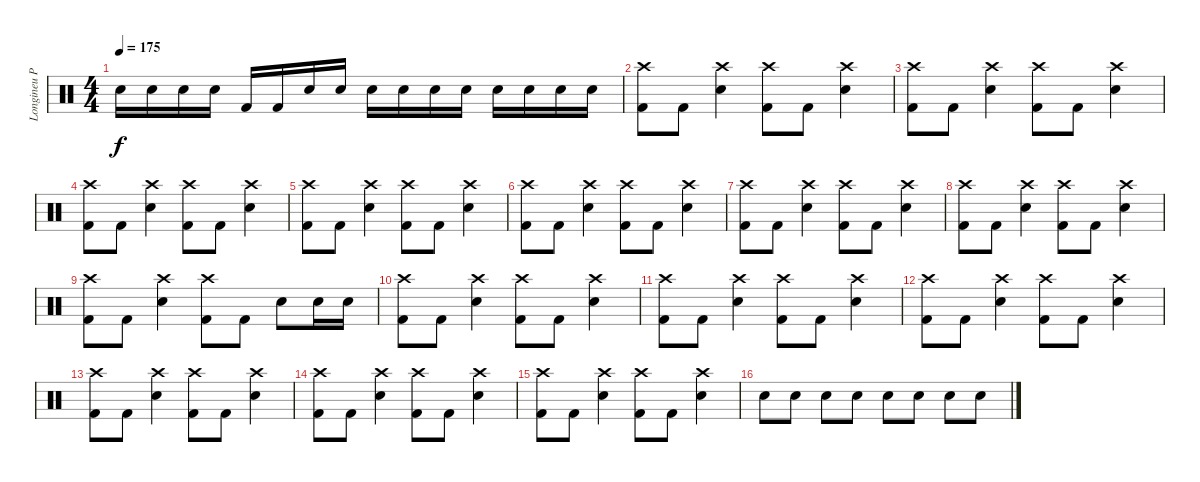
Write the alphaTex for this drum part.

\track ("Longineu Parsons III Drums" "Longineu P") {instrument percussion}
\staff {score}
\articulation defaults
\ts (4 4)
\tempo 175
\clef neutral
\ks c "Snare (hit) 2".16{dy f} "Snare (hit) 2".16 "Snare (hit) 2".16 "Snare (hit) 2".16 "Kick (hit) 2".16 "Kick (hit) 2".16 "Snare (hit) 2".16 "Snare (hit) 2".16 "Snare (hit) 2".16 "Snare (hit) 2".16 "Snare (hit) 2".16 "Snare (hit) 2".16 "Snare (hit) 2".16 "Snare (hit) 2".16 "Snare (hit) 2".16 "Snare (hit) 2".16
|
("Crash high (hit)" "Kick (hit) 2").8 "Kick (hit) 2".8 ("Crash high (hit)" "Snare (hit) 2").4 ("Crash high (hit)" "Kick (hit) 2").8 "Kick (hit) 2".8 ("Crash high (hit)" "Snare (hit) 2").4 |
("Crash high (hit)" "Kick (hit) 2").8 "Kick (hit) 2".8 ("Crash high (hit)" "Snare (hit) 2").4 ("Crash high (hit)" "Kick (hit) 2").8 "Kick (hit) 2".8 ("Crash high (hit)" "Snare (hit) 2").4 |
("Crash high (hit)" "Kick (hit) 2").8 "Kick (hit) 2".8 ("Crash high (hit)" "Snare (hit) 2").4 ("Crash high (hit)" "Kick (hit) 2").8 "Kick (hit) 2".8 ("Crash high (hit)" "Snare (hit) 2").4 |
("Crash high (hit)" "Kick (hit) 2").8 "Kick (hit) 2".8 ("Crash high (hit)" "Snare (hit) 2").4 ("Crash high (hit)" "Kick (hit) 2").8 "Kick (hit) 2".8 ("Crash high (hit)" "Snare (hit) 2").4 |
("Crash high (hit)" "Kick (hit) 2").8 "Kick (hit) 2".8 ("Crash high (hit)" "Snare (hit) 2").4 ("Crash high (hit)" "Kick (hit) 2").8 "Kick (hit) 2".8 ("Crash high (hit)" "Snare (hit) 2").4 |
("Crash high (hit)" "Kick (hit) 2").8 "Kick (hit) 2".8 ("Crash high (hit)" "Snare (hit) 2").4 ("Crash high (hit)" "Kick (hit) 2").8 "Kick (hit) 2".8 ("Crash high (hit)" "Snare (hit) 2").4 |
("Crash high (hit)" "Kick (hit) 2").8 "Kick (hit) 2".8 ("Crash high (hit)" "Snare (hit) 2").4 ("Crash high (hit)" "Kick (hit) 2").8 "Kick (hit) 2".8 ("Crash high (hit)" "Snare (hit) 2").4 |
("Crash high (hit)" "Kick (hit) 2").8 "Kick (hit) 2".8 ("Crash high (hit)" "Snare (hit) 2").4 ("Crash high (hit)" "Kick (hit) 2").8 "Kick (hit) 2".8 "Snare (hit) 2".8 "Snare (hit) 2".16 "Snare (hit) 2".16 |
("Crash high (hit)" "Kick (hit) 2").8 "Kick (hit) 2".8 ("Crash high (hit)" "Snare (hit) 2").4 ("Crash high (hit)" "Kick (hit) 2").8 "Kick (hit) 2".8 ("Crash high (hit)" "Snare (hit) 2").4 |
("Crash high (hit)" "Kick (hit) 2").8 "Kick (hit) 2".8 ("Crash high (hit)" "Snare (hit) 2").4 ("Crash high (hit)" "Kick (hit) 2").8 "Kick (hit) 2".8 ("Crash high (hit)" "Snare (hit) 2").4 |
("Crash high (hit)" "Kick (hit) 2").8 "Kick (hit) 2".8 ("Crash high (hit)" "Snare (hit) 2").4 ("Crash high (hit)" "Kick (hit) 2").8 "Kick (hit) 2".8 ("Crash high (hit)" "Snare (hit) 2").4 |
("Crash high (hit)" "Kick (hit) 2").8 "Kick (hit) 2".8 ("Crash high (hit)" "Snare (hit) 2").4 ("Crash high (hit)" "Kick (hit) 2").8 "Kick (hit) 2".8 ("Crash high (hit)" "Snare (hit) 2").4 |
("Crash high (hit)" "Kick (hit) 2").8 "Kick (hit) 2".8 ("Crash high (hit)" "Snare (hit) 2").4 ("Crash high (hit)" "Kick (hit) 2").8 "Kick (hit) 2".8 ("Crash high (hit)" "Snare (hit) 2").4 |
("Crash high (hit)" "Kick (hit) 2").8 "Kick (hit) 2".8 ("Crash high (hit)" "Snare (hit) 2").4 ("Crash high (hit)" "Kick (hit) 2").8 "Kick (hit) 2".8 ("Crash high (hit)" "Snare (hit) 2").4 |
"Snare (hit) 2".8 "Snare (hit) 2".8 "Snare (hit) 2".8 "Snare (hit) 2".8 "Snare (hit) 2".8 "Snare (hit) 2".8 "Snare (hit) 2".8 "Snare (hit) 2".8
